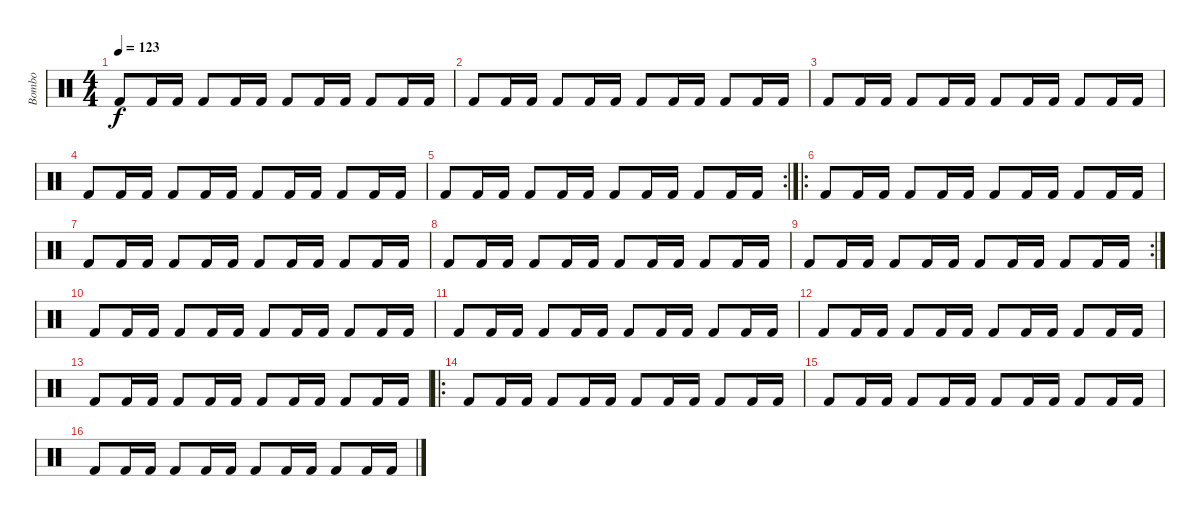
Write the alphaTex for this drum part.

\track ("Bombo" "Bombo") {instrument percussion}
\staff {score}
\articulation defaults
\ts (4 4)
\tempo 123
\clef neutral
\ks c "Kick (hit) 2".8{dy f} "Kick (hit) 2".16 "Kick (hit) 2".16 "Kick (hit) 2".8 "Kick (hit) 2".16 "Kick (hit) 2".16 "Kick (hit) 2".8 "Kick (hit) 2".16 "Kick (hit) 2".16 "Kick (hit) 2".8 "Kick (hit) 2".16 "Kick (hit) 2".16
|
"Kick (hit) 2".8 "Kick (hit) 2".16 "Kick (hit) 2".16 "Kick (hit) 2".8 "Kick (hit) 2".16 "Kick (hit) 2".16 "Kick (hit) 2".8 "Kick (hit) 2".16 "Kick (hit) 2".16 "Kick (hit) 2".8 "Kick (hit) 2".16 "Kick (hit) 2".16 |
"Kick (hit) 2".8 "Kick (hit) 2".16 "Kick (hit) 2".16 "Kick (hit) 2".8 "Kick (hit) 2".16 "Kick (hit) 2".16 "Kick (hit) 2".8 "Kick (hit) 2".16 "Kick (hit) 2".16 "Kick (hit) 2".8 "Kick (hit) 2".16 "Kick (hit) 2".16 |
"Kick (hit) 2".8 "Kick (hit) 2".16 "Kick (hit) 2".16 "Kick (hit) 2".8 "Kick (hit) 2".16 "Kick (hit) 2".16 "Kick (hit) 2".8 "Kick (hit) 2".16 "Kick (hit) 2".16 "Kick (hit) 2".8 "Kick (hit) 2".16 "Kick (hit) 2".16 |
\rc 2 "Kick (hit) 2".8 "Kick (hit) 2".16 "Kick (hit) 2".16 "Kick (hit) 2".8 "Kick (hit) 2".16 "Kick (hit) 2".16 "Kick (hit) 2".8 "Kick (hit) 2".16 "Kick (hit) 2".16 "Kick (hit) 2".8 "Kick (hit) 2".16 "Kick (hit) 2".16
|
\ro "Kick (hit) 2".8 "Kick (hit) 2".16 "Kick (hit) 2".16 "Kick (hit) 2".8 "Kick (hit) 2".16 "Kick (hit) 2".16 "Kick (hit) 2".8 "Kick (hit) 2".16 "Kick (hit) 2".16 "Kick (hit) 2".8 "Kick (hit) 2".16 "Kick (hit) 2".16
|
"Kick (hit) 2".8 "Kick (hit) 2".16 "Kick (hit) 2".16 "Kick (hit) 2".8 "Kick (hit) 2".16 "Kick (hit) 2".16 "Kick (hit) 2".8 "Kick (hit) 2".16 "Kick (hit) 2".16 "Kick (hit) 2".8 "Kick (hit) 2".16 "Kick (hit) 2".16 |
"Kick (hit) 2".8 "Kick (hit) 2".16 "Kick (hit) 2".16 "Kick (hit) 2".8 "Kick (hit) 2".16 "Kick (hit) 2".16 "Kick (hit) 2".8 "Kick (hit) 2".16 "Kick (hit) 2".16 "Kick (hit) 2".8 "Kick (hit) 2".16 "Kick (hit) 2".16 |
\rc 2 "Kick (hit) 2".8 "Kick (hit) 2".16 "Kick (hit) 2".16 "Kick (hit) 2".8 "Kick (hit) 2".16 "Kick (hit) 2".16 "Kick (hit) 2".8 "Kick (hit) 2".16 "Kick (hit) 2".16 "Kick (hit) 2".8 "Kick (hit) 2".16 "Kick (hit) 2".16
|
"Kick (hit) 2".8 "Kick (hit) 2".16 "Kick (hit) 2".16 "Kick (hit) 2".8 "Kick (hit) 2".16 "Kick (hit) 2".16 "Kick (hit) 2".8 "Kick (hit) 2".16 "Kick (hit) 2".16 "Kick (hit) 2".8 "Kick (hit) 2".16 "Kick (hit) 2".16 |
"Kick (hit) 2".8 "Kick (hit) 2".16 "Kick (hit) 2".16 "Kick (hit) 2".8 "Kick (hit) 2".16 "Kick (hit) 2".16 "Kick (hit) 2".8 "Kick (hit) 2".16 "Kick (hit) 2".16 "Kick (hit) 2".8 "Kick (hit) 2".16 "Kick (hit) 2".16 |
"Kick (hit) 2".8 "Kick (hit) 2".16 "Kick (hit) 2".16 "Kick (hit) 2".8 "Kick (hit) 2".16 "Kick (hit) 2".16 "Kick (hit) 2".8 "Kick (hit) 2".16 "Kick (hit) 2".16 "Kick (hit) 2".8 "Kick (hit) 2".16 "Kick (hit) 2".16 |
"Kick (hit) 2".8 "Kick (hit) 2".16 "Kick (hit) 2".16 "Kick (hit) 2".8 "Kick (hit) 2".16 "Kick (hit) 2".16 "Kick (hit) 2".8 "Kick (hit) 2".16 "Kick (hit) 2".16 "Kick (hit) 2".8 "Kick (hit) 2".16 "Kick (hit) 2".16 |
\ro "Kick (hit) 2".8 "Kick (hit) 2".16 "Kick (hit) 2".16 "Kick (hit) 2".8 "Kick (hit) 2".16 "Kick (hit) 2".16 "Kick (hit) 2".8 "Kick (hit) 2".16 "Kick (hit) 2".16 "Kick (hit) 2".8 "Kick (hit) 2".16 "Kick (hit) 2".16
|
"Kick (hit) 2".8 "Kick (hit) 2".16 "Kick (hit) 2".16 "Kick (hit) 2".8 "Kick (hit) 2".16 "Kick (hit) 2".16 "Kick (hit) 2".8 "Kick (hit) 2".16 "Kick (hit) 2".16 "Kick (hit) 2".8 "Kick (hit) 2".16 "Kick (hit) 2".16 |
"Kick (hit) 2".8 "Kick (hit) 2".16 "Kick (hit) 2".16 "Kick (hit) 2".8 "Kick (hit) 2".16 "Kick (hit) 2".16 "Kick (hit) 2".8 "Kick (hit) 2".16 "Kick (hit) 2".16 "Kick (hit) 2".8 "Kick (hit) 2".16 "Kick (hit) 2".16
